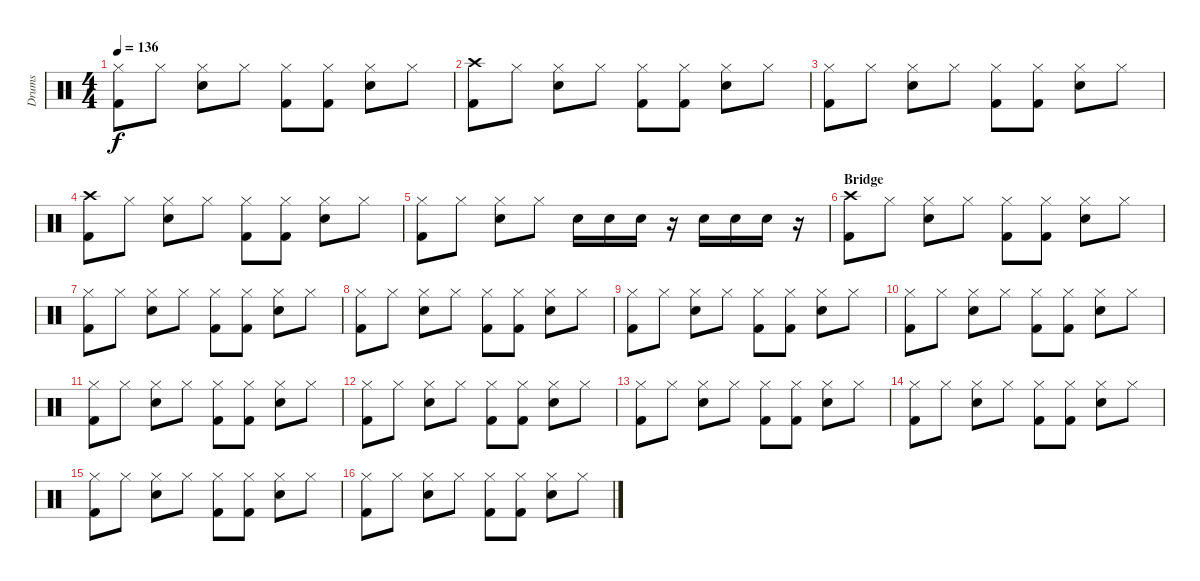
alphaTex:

\track ("Drums" "Drums") {instrument percussion}
\staff {score}
\articulation defaults
\ts (4 4)
\tempo 136
\clef neutral
\ks c
("Hi-Hat (closed)" "Kick (hit) 2").8{dy f} "Hi-Hat (closed)".8 ("Hi-Hat (closed)" "Snare (hit) 2").8 "Hi-Hat (closed)".8 ("Hi-Hat (closed)" "Kick (hit) 2").8 ("Hi-Hat (closed)" "Kick (hit) 2").8 ("Hi-Hat (closed)" "Snare (hit) 2").8 "Hi-Hat (closed)".8 |
("Crash high (hit)" "Kick (hit) 2").8 "Hi-Hat (closed)".8 ("Hi-Hat (closed)" "Snare (hit) 2").8 "Hi-Hat (closed)".8 ("Hi-Hat (closed)" "Kick (hit) 2").8 ("Hi-Hat (closed)" "Kick (hit) 2").8 ("Hi-Hat (closed)" "Snare (hit) 2").8 "Hi-Hat (closed)".8 |
("Hi-Hat (closed)" "Kick (hit) 2").8 "Hi-Hat (closed)".8 ("Hi-Hat (closed)" "Snare (hit) 2").8 "Hi-Hat (closed)".8 ("Hi-Hat (closed)" "Kick (hit) 2").8 ("Hi-Hat (closed)" "Kick (hit) 2").8 ("Hi-Hat (closed)" "Snare (hit) 2").8 "Hi-Hat (closed)".8 |
("Crash high (hit)" "Kick (hit) 2").8 "Hi-Hat (closed)".8 ("Hi-Hat (closed)" "Snare (hit) 2").8 "Hi-Hat (closed)".8 ("Hi-Hat (closed)" "Kick (hit) 2").8 ("Hi-Hat (closed)" "Kick (hit) 2").8 ("Hi-Hat (closed)" "Snare (hit) 2").8 "Hi-Hat (closed)".8 |
("Hi-Hat (closed)" "Kick (hit) 2").8 "Hi-Hat (closed)".8 ("Hi-Hat (closed)" "Snare (hit) 2").8 "Hi-Hat (closed)".8 "Snare (hit) 2".16 "Snare (hit) 2".16 "Snare (hit) 2".16 r.16 "Snare (hit) 2".16 "Snare (hit) 2".16 "Snare (hit) 2".16 r.16 |
\section ("" "Bridge")
("Crash high (hit)" "Kick (hit) 2").8 "Hi-Hat (closed)".8 ("Hi-Hat (closed)" "Snare (hit) 2").8 "Hi-Hat (closed)".8 ("Hi-Hat (closed)" "Kick (hit) 2").8 ("Hi-Hat (closed)" "Kick (hit) 2").8 ("Hi-Hat (closed)" "Snare (hit) 2").8 "Hi-Hat (closed)".8 |
("Hi-Hat (closed)" "Kick (hit) 2").8 "Hi-Hat (closed)".8 ("Hi-Hat (closed)" "Snare (hit) 2").8 "Hi-Hat (closed)".8 ("Hi-Hat (closed)" "Kick (hit) 2").8 ("Hi-Hat (closed)" "Kick (hit) 2").8 ("Hi-Hat (closed)" "Snare (hit) 2").8 "Hi-Hat (closed)".8 |
("Hi-Hat (closed)" "Kick (hit) 2").8 "Hi-Hat (closed)".8 ("Hi-Hat (closed)" "Snare (hit) 2").8 "Hi-Hat (closed)".8 ("Hi-Hat (closed)" "Kick (hit) 2").8 ("Hi-Hat (closed)" "Kick (hit) 2").8 ("Hi-Hat (closed)" "Snare (hit) 2").8 "Hi-Hat (closed)".8 |
("Hi-Hat (closed)" "Kick (hit) 2").8 "Hi-Hat (closed)".8 ("Hi-Hat (closed)" "Snare (hit) 2").8 "Hi-Hat (closed)".8 ("Hi-Hat (closed)" "Kick (hit) 2").8 ("Hi-Hat (closed)" "Kick (hit) 2").8 ("Hi-Hat (closed)" "Snare (hit) 2").8 "Hi-Hat (closed)".8 |
("Hi-Hat (closed)" "Kick (hit) 2").8 "Hi-Hat (closed)".8 ("Hi-Hat (closed)" "Snare (hit) 2").8 "Hi-Hat (closed)".8 ("Hi-Hat (closed)" "Kick (hit) 2").8 ("Hi-Hat (closed)" "Kick (hit) 2").8 ("Hi-Hat (closed)" "Snare (hit) 2").8 "Hi-Hat (closed)".8 |
("Hi-Hat (closed)" "Kick (hit) 2").8 "Hi-Hat (closed)".8 ("Hi-Hat (closed)" "Snare (hit) 2").8 "Hi-Hat (closed)".8 ("Hi-Hat (closed)" "Kick (hit) 2").8 ("Hi-Hat (closed)" "Kick (hit) 2").8 ("Hi-Hat (closed)" "Snare (hit) 2").8 "Hi-Hat (closed)".8 |
("Hi-Hat (closed)" "Kick (hit) 2").8 "Hi-Hat (closed)".8 ("Hi-Hat (closed)" "Snare (hit) 2").8 "Hi-Hat (closed)".8 ("Hi-Hat (closed)" "Kick (hit) 2").8 ("Hi-Hat (closed)" "Kick (hit) 2").8 ("Hi-Hat (closed)" "Snare (hit) 2").8 "Hi-Hat (closed)".8 |
("Hi-Hat (closed)" "Kick (hit) 2").8 "Hi-Hat (closed)".8 ("Hi-Hat (closed)" "Snare (hit) 2").8 "Hi-Hat (closed)".8 ("Hi-Hat (closed)" "Kick (hit) 2").8 ("Hi-Hat (closed)" "Kick (hit) 2").8 ("Hi-Hat (closed)" "Snare (hit) 2").8 "Hi-Hat (closed)".8 |
("Hi-Hat (closed)" "Kick (hit) 2").8 "Hi-Hat (closed)".8 ("Hi-Hat (closed)" "Snare (hit) 2").8 "Hi-Hat (closed)".8 ("Hi-Hat (closed)" "Kick (hit) 2").8 ("Hi-Hat (closed)" "Kick (hit) 2").8 ("Hi-Hat (closed)" "Snare (hit) 2").8 "Hi-Hat (closed)".8 |
("Hi-Hat (closed)" "Kick (hit) 2").8 "Hi-Hat (closed)".8 ("Hi-Hat (closed)" "Snare (hit) 2").8 "Hi-Hat (closed)".8 ("Hi-Hat (closed)" "Kick (hit) 2").8 ("Hi-Hat (closed)" "Kick (hit) 2").8 ("Hi-Hat (closed)" "Snare (hit) 2").8 "Hi-Hat (closed)".8 |
("Hi-Hat (closed)" "Kick (hit) 2").8 "Hi-Hat (closed)".8 ("Hi-Hat (closed)" "Snare (hit) 2").8 "Hi-Hat (closed)".8 ("Hi-Hat (closed)" "Kick (hit) 2").8 ("Hi-Hat (closed)" "Kick (hit) 2").8 ("Hi-Hat (closed)" "Snare (hit) 2").8 "Hi-Hat (closed)".8
